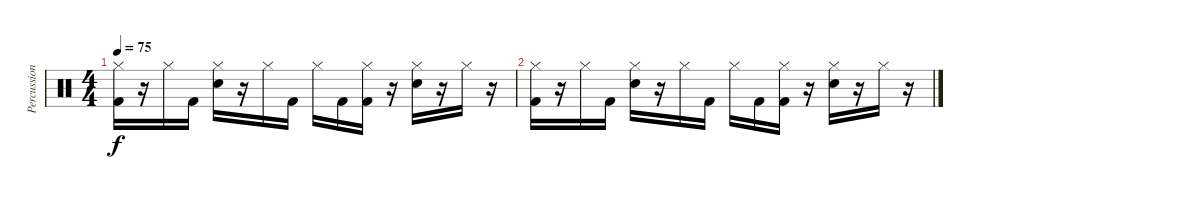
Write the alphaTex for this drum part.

\track ("Percussion" "Percussion") {instrument percussion}
\staff {score}
\articulation defaults
\ts (4 4)
\tempo 75
\clef neutral
\ks c
("Hi-Hat (closed)" "Kick (hit) 2").16{dy f} r.16 "Hi-Hat (closed)".16 "Kick (hit) 2".16 ("Hi-Hat (closed)" "Snare (hit) 2").16 r.16 "Hi-Hat (closed)".16 "Kick (hit) 2".16 "Hi-Hat (closed)".16 "Kick (hit) 2".16 ("Hi-Hat (closed)" "Kick (hit) 2").16 r.16 ("Hi-Hat (closed)" "Snare (hit) 2").16 r.16 "Hi-Hat (closed)".16 r.16 |
("Hi-Hat (closed)" "Kick (hit) 2").16 r.16 "Hi-Hat (closed)".16 "Kick (hit) 2".16 ("Hi-Hat (closed)" "Snare (hit) 2").16 r.16 "Hi-Hat (closed)".16 "Kick (hit) 2".16 "Hi-Hat (closed)".16 "Kick (hit) 2".16 ("Hi-Hat (closed)" "Kick (hit) 2").16 r.16 ("Hi-Hat (closed)" "Snare (hit) 2").16 r.16 "Hi-Hat (closed)".16 r.16
